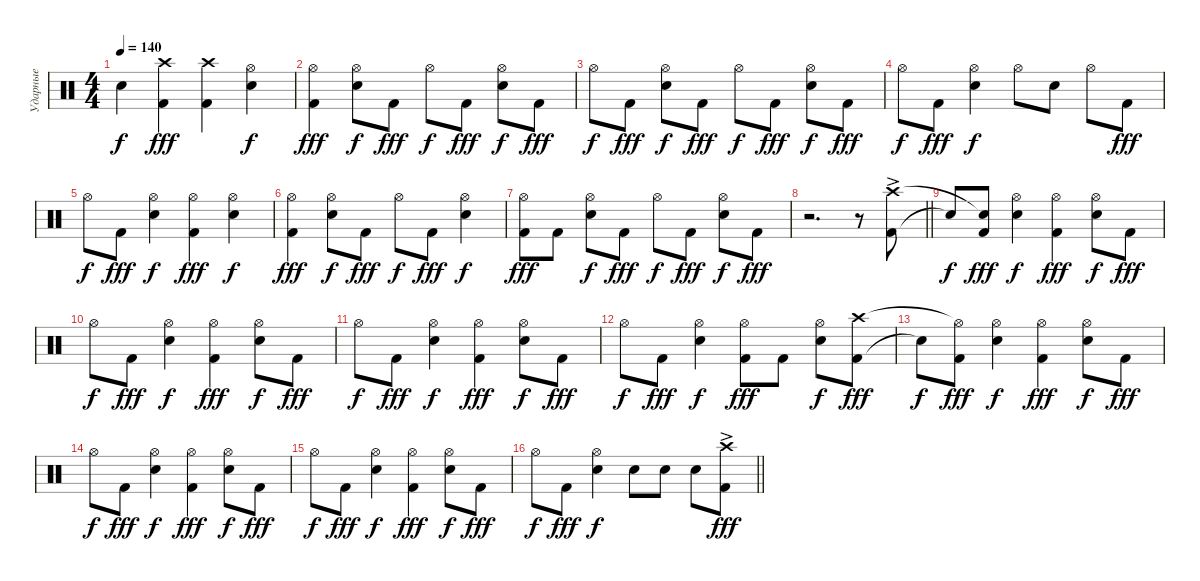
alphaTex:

\track ("Ударные" "Ударные") {instrument percussion}
\staff {score}
\articulation defaults
\ts (4 4)
\tempo 140
\clef neutral
\ks c "Snare (hit)"{t}.4{dy f}
("Kick (hit) 2" "Crash high (hit)").4{dy fff} ("Kick (hit) 2" "Crash high (hit)").4 ("Snare (hit) 2" "Hi-Hat (open)").4{dy f} |
("Kick (hit) 2" "Hi-Hat (open)").4{dy fff} ("Snare (hit) 2" "Hi-Hat (open)").8{dy f} "Kick (hit) 2".8{dy fff} "Hi-Hat (open)".8{dy f} "Kick (hit) 2".8{dy fff} ("Snare (hit) 2" "Hi-Hat (open)").8{dy f} "Kick (hit) 2".8{dy fff} |
"Hi-Hat (open)".8{dy f} "Kick (hit) 2".8{dy fff} ("Snare (hit) 2" "Hi-Hat (open)").8{dy f} "Kick (hit) 2".8{dy fff} "Hi-Hat (open)".8{dy f} "Kick (hit) 2".8{dy fff} ("Snare (hit) 2" "Hi-Hat (open)").8{dy f} "Kick (hit) 2".8{dy fff} |
"Hi-Hat (open)".8{dy f} "Kick (hit) 2".8{dy fff} ("Snare (hit) 2" "Hi-Hat (open)").4{dy f} "Hi-Hat (open)".8 "Snare (hit) 2".8 "Hi-Hat (open)".8 "Kick (hit) 2".8{dy fff} |
"Hi-Hat (open)".8{dy f} "Kick (hit) 2".8{dy fff} ("Snare (hit) 2" "Hi-Hat (open)").4{dy f} ("Kick (hit) 2" "Hi-Hat (open)").4{dy fff} ("Snare (hit) 2" "Hi-Hat (open)").4{dy f} |
("Kick (hit) 2" "Hi-Hat (open)").4{dy fff} ("Snare (hit) 2" "Hi-Hat (open)").8{dy f} "Kick (hit) 2".8{dy fff} "Hi-Hat (open)".8{dy f} "Kick (hit) 2".8{dy fff} ("Snare (hit) 2" "Hi-Hat (open)").4{dy f} |
("Kick (hit) 2" "Hi-Hat (open)").8{dy fff} "Kick (hit) 2".8 ("Snare (hit) 2" "Hi-Hat (open)").8{dy f} "Kick (hit) 2".8{dy fff} "Hi-Hat (open)".8{dy f} "Kick (hit) 2".8{dy fff} ("Snare (hit) 2" "Hi-Hat (open)").8{dy f} "Kick (hit) 2".8{dy fff} |
\barLineRight lightlight
r.2{d} r.8 ("Kick (hit) 2"{ac} "Crash high (hit)"{ac}).8 |
"Snare (hit)"{t}.8{dy f} ("Kick (hit) 2" "Snare (hit)"{t}).8{dy fff} ("Snare (hit) 2" "Hi-Hat (open)").4{dy f} ("Kick (hit) 2" "Hi-Hat (open)").4{dy fff} ("Snare (hit) 2" "Hi-Hat (open)").8{dy f} "Kick (hit) 2".8{dy fff} |
"Hi-Hat (open)".8{dy f} "Kick (hit) 2".8{dy fff} ("Snare (hit) 2" "Hi-Hat (open)").4{dy f} ("Kick (hit) 2" "Hi-Hat (open)").4{dy fff} ("Snare (hit) 2" "Hi-Hat (open)").8{dy f} "Kick (hit) 2".8{dy fff} |
"Hi-Hat (open)".8{dy f} "Kick (hit) 2".8{dy fff} ("Snare (hit) 2" "Hi-Hat (open)").4{dy f} ("Kick (hit) 2" "Hi-Hat (open)").4{dy fff} ("Snare (hit) 2" "Hi-Hat (open)").8{dy f} "Kick (hit) 2".8{dy fff} |
"Hi-Hat (open)".8{dy f} "Kick (hit) 2".8{dy fff} ("Snare (hit) 2" "Hi-Hat (open)").4{dy f} ("Kick (hit) 2" "Hi-Hat (open)").8{dy fff} "Kick (hit) 2".8 ("Snare (hit) 2" "Hi-Hat (open)").8{dy f} ("Kick (hit) 2" "Crash high (hit)").8{dy fff} |
"Snare (hit)"{t}.8{dy f} ("Kick (hit) 2" "Hi-Hat (open)"{t}).8{dy fff} ("Snare (hit) 2" "Hi-Hat (open)").4{dy f} ("Kick (hit) 2" "Hi-Hat (open)").4{dy fff} ("Snare (hit) 2" "Hi-Hat (open)").8{dy f} "Kick (hit) 2".8{dy fff} |
"Hi-Hat (open)".8{dy f} "Kick (hit) 2".8{dy fff} ("Snare (hit) 2" "Hi-Hat (open)").4{dy f} ("Kick (hit) 2" "Hi-Hat (open)").4{dy fff} ("Snare (hit) 2" "Hi-Hat (open)").8{dy f} "Kick (hit) 2".8{dy fff} |
"Hi-Hat (open)".8{dy f} "Kick (hit) 2".8{dy fff} ("Snare (hit) 2" "Hi-Hat (open)").4{dy f} ("Kick (hit) 2" "Hi-Hat (open)").4{dy fff} ("Snare (hit) 2" "Hi-Hat (open)").8{dy f} "Kick (hit) 2".8{dy fff} |
\barLineRight lightlight "Hi-Hat (open)".8{dy f} "Kick (hit) 2".8{dy fff}
("Snare (hit) 2" "Hi-Hat (open)").4{dy f} "Snare (hit) 2".8 "Snare (hit) 2".8 "Snare (hit) 2".8 ("Kick (hit) 2"{ac} "Crash high (hit)"{ac}).8{dy fff}
